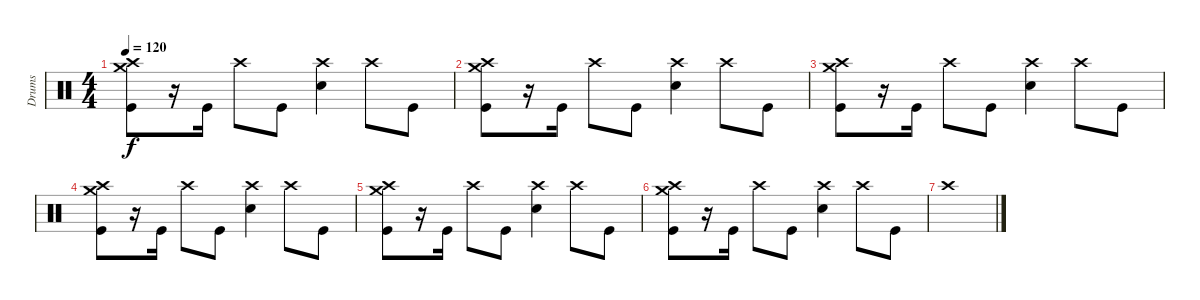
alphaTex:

\track ("Drums" "Drums") {instrument percussion}
\staff {score}
\articulation defaults
\ts (4 4)
\tempo 120
\clef neutral
\ks c
("Crash high (hit)" "Crash medium (hit)" "Kick (hit)").8{dy f} r.16 "Kick (hit)".16 "Crash high (hit)".8 "Kick (hit)".8 ("Crash high (hit)" "Snare (hit) 2").4 "Crash high (hit)".8 "Kick (hit)".8 |
("Crash high (hit)" "Crash medium (hit)" "Kick (hit)").8 r.16 "Kick (hit)".16 "Crash high (hit)".8 "Kick (hit)".8 ("Crash high (hit)" "Snare (hit) 2").4 "Crash high (hit)".8 "Kick (hit)".8 |
("Crash high (hit)" "Crash medium (hit)" "Kick (hit)").8 r.16 "Kick (hit)".16 "Crash high (hit)".8 "Kick (hit)".8 ("Crash high (hit)" "Snare (hit) 2").4 "Crash high (hit)".8 "Kick (hit)".8 |
("Crash high (hit)" "Crash medium (hit)" "Kick (hit)").8 r.16 "Kick (hit)".16 "Crash high (hit)".8 "Kick (hit)".8 ("Crash high (hit)" "Snare (hit) 2").4 "Crash high (hit)".8 "Kick (hit)".8 |
("Crash high (hit)" "Crash medium (hit)" "Kick (hit)").8 r.16 "Kick (hit)".16 "Crash high (hit)".8 "Kick (hit)".8 ("Crash high (hit)" "Snare (hit) 2").4 "Crash high (hit)".8 "Kick (hit)".8 |
("Crash high (hit)" "Crash medium (hit)" "Kick (hit)").8 r.16 "Kick (hit)".16 "Crash high (hit)".8 "Kick (hit)".8 ("Crash high (hit)" "Snare (hit) 2").4 "Crash high (hit)".8 "Kick (hit)".8 |
"Crash high (hit)".1
